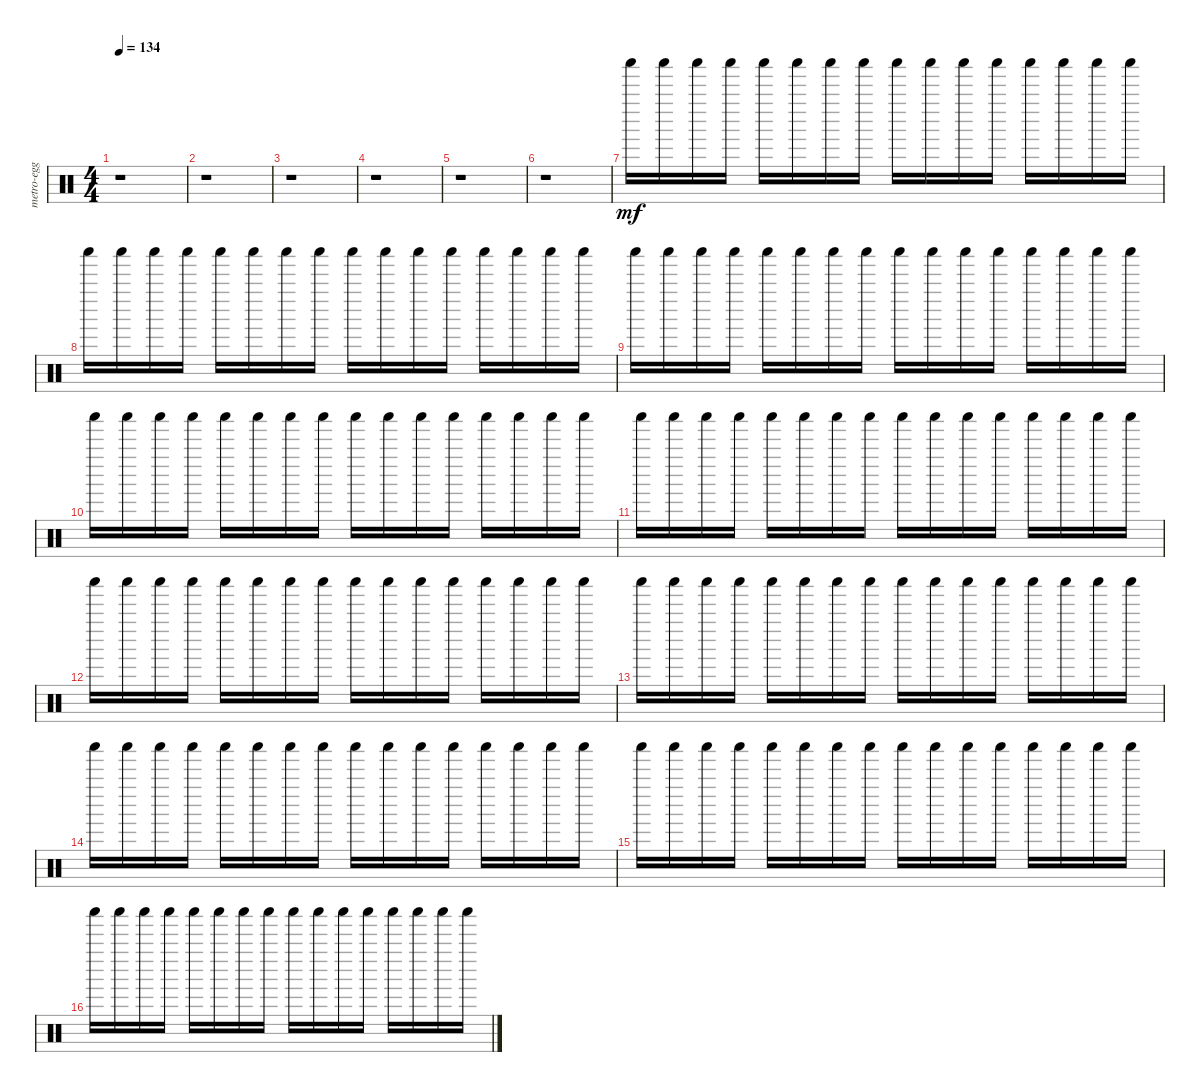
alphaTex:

\track ("metro-egg" "metro-egg") {instrument percussion}
\staff {score}
\articulation defaults
\ts (4 4)
\tempo 134
\clef neutral
\ks c
r.1{dy f} |
r.1 |
r.1 |
r.1 |
r.1 |
r.1 |
"Shaker (hit)".16{dy mf} "Shaker (hit)".16 "Shaker (hit)".16 "Shaker (hit)".16 "Shaker (hit)".16 "Shaker (hit)".16 "Shaker (hit)".16 "Shaker (hit)".16 "Shaker (hit)".16 "Shaker (hit)".16 "Shaker (hit)".16 "Shaker (hit)".16 "Shaker (hit)".16 "Shaker (hit)".16 "Shaker (hit)".16 "Shaker (hit)".16 |
"Shaker (hit)".16 "Shaker (hit)".16 "Shaker (hit)".16 "Shaker (hit)".16 "Shaker (hit)".16 "Shaker (hit)".16 "Shaker (hit)".16 "Shaker (hit)".16 "Shaker (hit)".16 "Shaker (hit)".16 "Shaker (hit)".16 "Shaker (hit)".16 "Shaker (hit)".16 "Shaker (hit)".16 "Shaker (hit)".16 "Shaker (hit)".16 |
"Shaker (hit)".16 "Shaker (hit)".16 "Shaker (hit)".16 "Shaker (hit)".16 "Shaker (hit)".16 "Shaker (hit)".16 "Shaker (hit)".16 "Shaker (hit)".16 "Shaker (hit)".16 "Shaker (hit)".16 "Shaker (hit)".16 "Shaker (hit)".16 "Shaker (hit)".16 "Shaker (hit)".16 "Shaker (hit)".16 "Shaker (hit)".16 |
"Shaker (hit)".16 "Shaker (hit)".16 "Shaker (hit)".16 "Shaker (hit)".16 "Shaker (hit)".16 "Shaker (hit)".16 "Shaker (hit)".16 "Shaker (hit)".16 "Shaker (hit)".16 "Shaker (hit)".16 "Shaker (hit)".16 "Shaker (hit)".16 "Shaker (hit)".16 "Shaker (hit)".16 "Shaker (hit)".16 "Shaker (hit)".16 |
"Shaker (hit)".16 "Shaker (hit)".16 "Shaker (hit)".16 "Shaker (hit)".16 "Shaker (hit)".16 "Shaker (hit)".16 "Shaker (hit)".16 "Shaker (hit)".16 "Shaker (hit)".16 "Shaker (hit)".16 "Shaker (hit)".16 "Shaker (hit)".16 "Shaker (hit)".16 "Shaker (hit)".16 "Shaker (hit)".16 "Shaker (hit)".16 |
"Shaker (hit)".16 "Shaker (hit)".16 "Shaker (hit)".16 "Shaker (hit)".16 "Shaker (hit)".16 "Shaker (hit)".16 "Shaker (hit)".16 "Shaker (hit)".16 "Shaker (hit)".16 "Shaker (hit)".16 "Shaker (hit)".16 "Shaker (hit)".16 "Shaker (hit)".16 "Shaker (hit)".16 "Shaker (hit)".16 "Shaker (hit)".16 |
"Shaker (hit)".16 "Shaker (hit)".16 "Shaker (hit)".16 "Shaker (hit)".16 "Shaker (hit)".16 "Shaker (hit)".16 "Shaker (hit)".16 "Shaker (hit)".16 "Shaker (hit)".16 "Shaker (hit)".16 "Shaker (hit)".16 "Shaker (hit)".16 "Shaker (hit)".16 "Shaker (hit)".16 "Shaker (hit)".16 "Shaker (hit)".16 |
"Shaker (hit)".16 "Shaker (hit)".16 "Shaker (hit)".16 "Shaker (hit)".16 "Shaker (hit)".16 "Shaker (hit)".16 "Shaker (hit)".16 "Shaker (hit)".16 "Shaker (hit)".16 "Shaker (hit)".16 "Shaker (hit)".16 "Shaker (hit)".16 "Shaker (hit)".16 "Shaker (hit)".16 "Shaker (hit)".16 "Shaker (hit)".16 |
"Shaker (hit)".16 "Shaker (hit)".16 "Shaker (hit)".16 "Shaker (hit)".16 "Shaker (hit)".16 "Shaker (hit)".16 "Shaker (hit)".16 "Shaker (hit)".16 "Shaker (hit)".16 "Shaker (hit)".16 "Shaker (hit)".16 "Shaker (hit)".16 "Shaker (hit)".16 "Shaker (hit)".16 "Shaker (hit)".16 "Shaker (hit)".16 |
"Shaker (hit)".16 "Shaker (hit)".16 "Shaker (hit)".16 "Shaker (hit)".16 "Shaker (hit)".16 "Shaker (hit)".16 "Shaker (hit)".16 "Shaker (hit)".16 "Shaker (hit)".16 "Shaker (hit)".16 "Shaker (hit)".16 "Shaker (hit)".16 "Shaker (hit)".16 "Shaker (hit)".16 "Shaker (hit)".16 "Shaker (hit)".16
